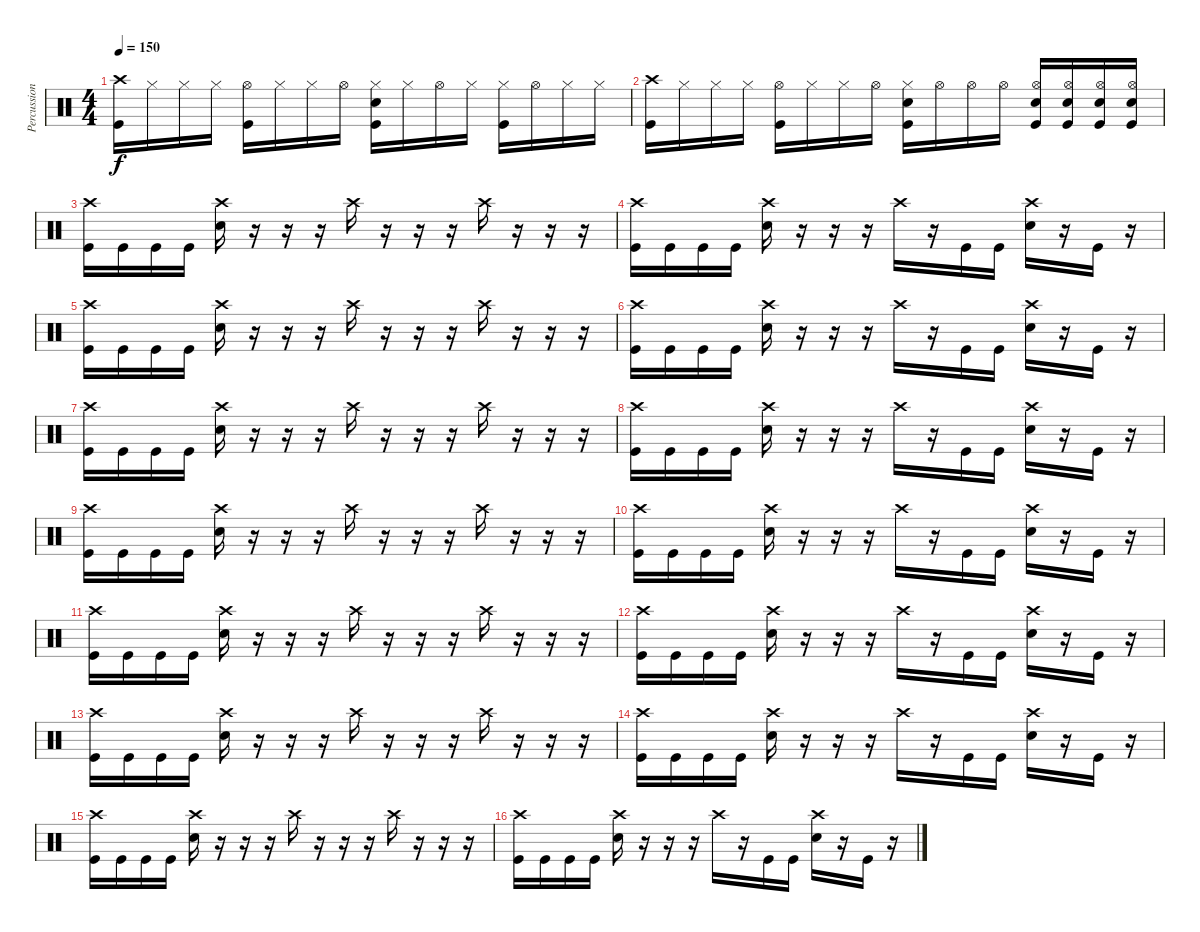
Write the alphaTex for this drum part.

\track ("Percussion" "Percussion") {instrument percussion}
\staff {score}
\articulation defaults
\ts (4 4)
\tempo 150
\clef neutral
\ks c
("Crash high (hit)" "Kick (hit)").16{dy f} "Hi-Hat (closed)".16 "Hi-Hat (closed)".16 "Hi-Hat (closed)".16 ("Hi-Hat (open)" "Kick (hit)").16 "Hi-Hat (closed)".16 "Hi-Hat (closed)".16 "Hi-Hat (open)".16 ("Hi-Hat (closed)" "Electric Snare (hit)" "Kick (hit)").16 "Hi-Hat (closed)".16 "Hi-Hat (open)".16 "Hi-Hat (closed)".16 ("Hi-Hat (closed)" "Kick (hit)").16 "Hi-Hat (open)".16 "Hi-Hat (closed)".16 "Hi-Hat (closed)".16 |
("Crash high (hit)" "Kick (hit)").16 "Hi-Hat (closed)".16 "Hi-Hat (closed)".16 "Hi-Hat (closed)".16 ("Hi-Hat (open)" "Kick (hit)").16 "Hi-Hat (closed)".16 "Hi-Hat (closed)".16 "Hi-Hat (open)".16 ("Hi-Hat (closed)" "Electric Snare (hit)" "Kick (hit)").16 "Hi-Hat (open)".16 "Hi-Hat (open)".16 "Hi-Hat (open)".16 ("Hi-Hat (open)" "Electric Snare (hit)" "Kick (hit)").16 ("Hi-Hat (open)" "Electric Snare (hit)" "Kick (hit)").16 ("Hi-Hat (open)" "Electric Snare (hit)" "Kick (hit)").16 ("Hi-Hat (open)" "Electric Snare (hit)" "Kick (hit)").16 |
("Crash high (hit)" "Kick (hit)").16 "Kick (hit)".16 "Kick (hit)".16 "Kick (hit)".16 ("Crash high (hit)" "Electric Snare (hit)").16 r.16 r.16 r.16 "Crash high (hit)".16 r.16 r.16 r.16 "Crash high (hit)".16 r.16 r.16 r.16 |
("Crash high (hit)" "Kick (hit)").16 "Kick (hit)".16 "Kick (hit)".16 "Kick (hit)".16 ("Crash high (hit)" "Electric Snare (hit)").16 r.16 r.16 r.16 "Crash high (hit)".16 r.16 "Kick (hit)".16 "Kick (hit)".16 ("Crash high (hit)" "Electric Snare (hit)").16 r.16 "Kick (hit)".16 r.16 |
("Crash high (hit)" "Kick (hit)").16 "Kick (hit)".16 "Kick (hit)".16 "Kick (hit)".16 ("Crash high (hit)" "Electric Snare (hit)").16 r.16 r.16 r.16 "Crash high (hit)".16 r.16 r.16 r.16 "Crash high (hit)".16 r.16 r.16 r.16 |
("Crash high (hit)" "Kick (hit)").16 "Kick (hit)".16 "Kick (hit)".16 "Kick (hit)".16 ("Crash high (hit)" "Electric Snare (hit)").16 r.16 r.16 r.16 "Crash high (hit)".16 r.16 "Kick (hit)".16 "Kick (hit)".16 ("Crash high (hit)" "Electric Snare (hit)").16 r.16 "Kick (hit)".16 r.16 |
("Crash high (hit)" "Kick (hit)").16 "Kick (hit)".16 "Kick (hit)".16 "Kick (hit)".16 ("Crash high (hit)" "Electric Snare (hit)").16 r.16 r.16 r.16 "Crash high (hit)".16 r.16 r.16 r.16 "Crash high (hit)".16 r.16 r.16 r.16 |
("Crash high (hit)" "Kick (hit)").16 "Kick (hit)".16 "Kick (hit)".16 "Kick (hit)".16 ("Crash high (hit)" "Electric Snare (hit)").16 r.16 r.16 r.16 "Crash high (hit)".16 r.16 "Kick (hit)".16 "Kick (hit)".16 ("Crash high (hit)" "Electric Snare (hit)").16 r.16 "Kick (hit)".16 r.16 |
("Crash high (hit)" "Kick (hit)").16 "Kick (hit)".16 "Kick (hit)".16 "Kick (hit)".16 ("Crash high (hit)" "Electric Snare (hit)").16 r.16 r.16 r.16 "Crash high (hit)".16 r.16 r.16 r.16 "Crash high (hit)".16 r.16 r.16 r.16 |
("Crash high (hit)" "Kick (hit)").16 "Kick (hit)".16 "Kick (hit)".16 "Kick (hit)".16 ("Crash high (hit)" "Electric Snare (hit)").16 r.16 r.16 r.16 "Crash high (hit)".16 r.16 "Kick (hit)".16 "Kick (hit)".16 ("Crash high (hit)" "Electric Snare (hit)").16 r.16 "Kick (hit)".16 r.16 |
("Crash high (hit)" "Kick (hit)").16 "Kick (hit)".16 "Kick (hit)".16 "Kick (hit)".16 ("Crash high (hit)" "Electric Snare (hit)").16 r.16 r.16 r.16 "Crash high (hit)".16 r.16 r.16 r.16 "Crash high (hit)".16 r.16 r.16 r.16 |
("Crash high (hit)" "Kick (hit)").16 "Kick (hit)".16 "Kick (hit)".16 "Kick (hit)".16 ("Crash high (hit)" "Electric Snare (hit)").16 r.16 r.16 r.16 "Crash high (hit)".16 r.16 "Kick (hit)".16 "Kick (hit)".16 ("Crash high (hit)" "Electric Snare (hit)").16 r.16 "Kick (hit)".16 r.16 |
("Crash high (hit)" "Kick (hit)").16 "Kick (hit)".16 "Kick (hit)".16 "Kick (hit)".16 ("Crash high (hit)" "Electric Snare (hit)").16 r.16 r.16 r.16 "Crash high (hit)".16 r.16 r.16 r.16 "Crash high (hit)".16 r.16 r.16 r.16 |
("Crash high (hit)" "Kick (hit)").16 "Kick (hit)".16 "Kick (hit)".16 "Kick (hit)".16 ("Crash high (hit)" "Electric Snare (hit)").16 r.16 r.16 r.16 "Crash high (hit)".16 r.16 "Kick (hit)".16 "Kick (hit)".16 ("Crash high (hit)" "Electric Snare (hit)").16 r.16 "Kick (hit)".16 r.16 |
("Crash high (hit)" "Kick (hit)").16 "Kick (hit)".16 "Kick (hit)".16 "Kick (hit)".16 ("Crash high (hit)" "Electric Snare (hit)").16 r.16 r.16 r.16 "Crash high (hit)".16 r.16 r.16 r.16 "Crash high (hit)".16 r.16 r.16 r.16 |
("Crash high (hit)" "Kick (hit)").16 "Kick (hit)".16 "Kick (hit)".16 "Kick (hit)".16 ("Crash high (hit)" "Electric Snare (hit)").16 r.16 r.16 r.16 "Crash high (hit)".16 r.16 "Kick (hit)".16 "Kick (hit)".16 ("Crash high (hit)" "Electric Snare (hit)").16 r.16 "Kick (hit)".16 r.16
